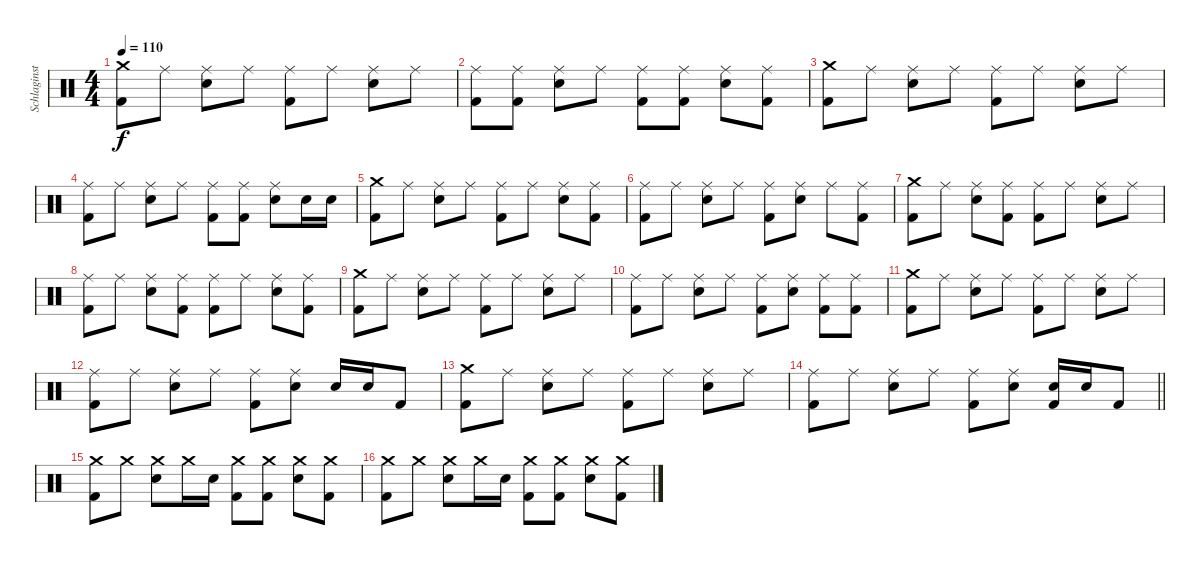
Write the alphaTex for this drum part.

\track ("Schlaginstrumente - Auswahl" "Schlaginst") {instrument percussion}
\staff {score}
\articulation defaults
\ts (4 4)
\tempo 110
\clef neutral
\ks c
("Crash medium (hit)" "Kick (hit) 2").8{dy f} "Ride (middle)".8 ("Ride (middle)" "Snare (hit) 2").8 "Ride (middle)".8 ("Ride (middle)" "Kick (hit) 2").8 "Ride (middle)".8 ("Ride (middle)" "Snare (hit) 2").8 "Ride (middle)".8 |
("Ride (middle)" "Kick (hit) 2").8 ("Ride (middle)" "Kick (hit) 2").8 ("Ride (middle)" "Snare (hit) 2").8 "Ride (middle)".8 ("Ride (middle)" "Kick (hit) 2").8 ("Ride (middle)" "Kick (hit) 2").8 ("Ride (middle)" "Snare (hit) 2").8 ("Ride (middle)" "Kick (hit) 2").8 |
("Crash medium (hit)" "Kick (hit) 2").8 "Ride (middle)".8 ("Ride (middle)" "Snare (hit) 2").8 "Ride (middle)".8 ("Ride (middle)" "Kick (hit) 2").8 "Ride (middle)".8 ("Ride (middle)" "Snare (hit) 2").8 "Ride (middle)".8 |
("Ride (middle)" "Kick (hit) 2").8 "Ride (middle)".8 ("Ride (middle)" "Snare (hit) 2").8 "Ride (middle)".8 ("Ride (middle)" "Kick (hit) 2").8 ("Ride (middle)" "Kick (hit) 2").8 ("Ride (middle)" "Snare (hit) 2").8 "Snare (hit) 2".16 "Snare (hit) 2".16 |
("Crash medium (hit)" "Kick (hit) 2").8 "Ride (middle)".8 ("Ride (middle)" "Snare (hit) 2").8 "Ride (middle)".8 ("Ride (middle)" "Kick (hit) 2").8 "Ride (middle)".8 ("Ride (middle)" "Snare (hit) 2").8 ("Ride (middle)" "Kick (hit) 2").8 |
("Ride (middle)" "Kick (hit) 2").8 "Ride (middle)".8 ("Ride (middle)" "Snare (hit) 2").8 "Ride (middle)".8 ("Ride (middle)" "Kick (hit) 2").8 ("Ride (middle)" "Snare (hit) 2").8 "Ride (middle)".8 ("Ride (middle)" "Kick (hit) 2").8 |
("Crash medium (hit)" "Kick (hit) 2").8 "Ride (middle)".8 ("Ride (middle)" "Snare (hit) 2").8 ("Ride (middle)" "Kick (hit) 2").8 ("Ride (middle)" "Kick (hit) 2").8 "Ride (middle)".8 ("Ride (middle)" "Snare (hit) 2").8 "Ride (middle)".8 |
("Ride (middle)" "Kick (hit) 2").8 "Ride (middle)".8 ("Ride (middle)" "Snare (hit) 2").8 ("Ride (middle)" "Kick (hit) 2").8 ("Ride (middle)" "Kick (hit) 2").8 "Ride (middle)".8 ("Ride (middle)" "Snare (hit) 2").8 ("Ride (middle)" "Kick (hit) 2").8 |
("Crash medium (hit)" "Kick (hit) 2").8 "Ride (middle)".8 ("Ride (middle)" "Snare (hit) 2").8 "Ride (middle)".8 ("Ride (middle)" "Kick (hit) 2").8 "Ride (middle)".8 ("Ride (middle)" "Snare (hit) 2").8 "Ride (middle)".8 |
("Ride (middle)" "Kick (hit) 2").8 "Ride (middle)".8 ("Ride (middle)" "Snare (hit) 2").8 "Ride (middle)".8 ("Ride (middle)" "Kick (hit) 2").8 ("Ride (middle)" "Snare (hit) 2").8 ("Ride (middle)" "Kick (hit) 2").8 ("Ride (middle)" "Kick (hit) 2").8 |
("Crash medium (hit)" "Kick (hit) 2").8 "Ride (middle)".8 ("Ride (middle)" "Snare (hit) 2").8 "Ride (middle)".8 ("Ride (middle)" "Kick (hit) 2").8 "Ride (middle)".8 ("Ride (middle)" "Snare (hit) 2").8 "Ride (middle)".8 |
("Ride (middle)" "Kick (hit) 2").8 "Ride (middle)".8 ("Ride (middle)" "Snare (hit) 2").8 "Ride (middle)".8 ("Ride (middle)" "Kick (hit) 2").8 ("Ride (middle)" "Snare (hit) 2").8 "Snare (hit) 2".16 "Snare (hit) 2".16 "Kick (hit) 2".8 |
("Crash medium (hit)" "Kick (hit) 2").8 "Ride (middle)".8 ("Ride (middle)" "Snare (hit) 2").8 "Ride (middle)".8 ("Ride (middle)" "Kick (hit) 2").8 "Ride (middle)".8 ("Ride (middle)" "Snare (hit) 2").8 "Ride (middle)".8 |
\barLineRight lightlight
("Ride (middle)" "Kick (hit) 2").8 "Ride (middle)".8 ("Ride (middle)" "Snare (hit) 2").8 "Ride (middle)".8 ("Ride (middle)" "Kick (hit) 2").8 ("Ride (middle)" "Snare (hit) 2").8 ("Snare (hit) 2" "Kick (hit) 2").16 "Snare (hit) 2".16 "Kick (hit) 2".8 |
("Crash medium (hit)" "Kick (hit) 2").8 "Crash medium (hit)".8 ("Crash medium (hit)" "Snare (hit) 2").8 "Crash medium (hit)".16 "Snare (hit) 2".16 ("Crash medium (hit)" "Kick (hit) 2").8 ("Crash medium (hit)" "Kick (hit) 2").8 ("Crash medium (hit)" "Snare (hit) 2").8 ("Crash medium (hit)" "Kick (hit) 2").8 |
("Crash medium (hit)" "Kick (hit) 2").8 "Crash medium (hit)".8 ("Crash medium (hit)" "Snare (hit) 2").8 "Crash medium (hit)".16 "Snare (hit) 2".16 ("Crash medium (hit)" "Kick (hit) 2").8 ("Crash medium (hit)" "Kick (hit) 2").8 ("Crash medium (hit)" "Snare (hit) 2").8 ("Crash medium (hit)" "Kick (hit) 2").8
